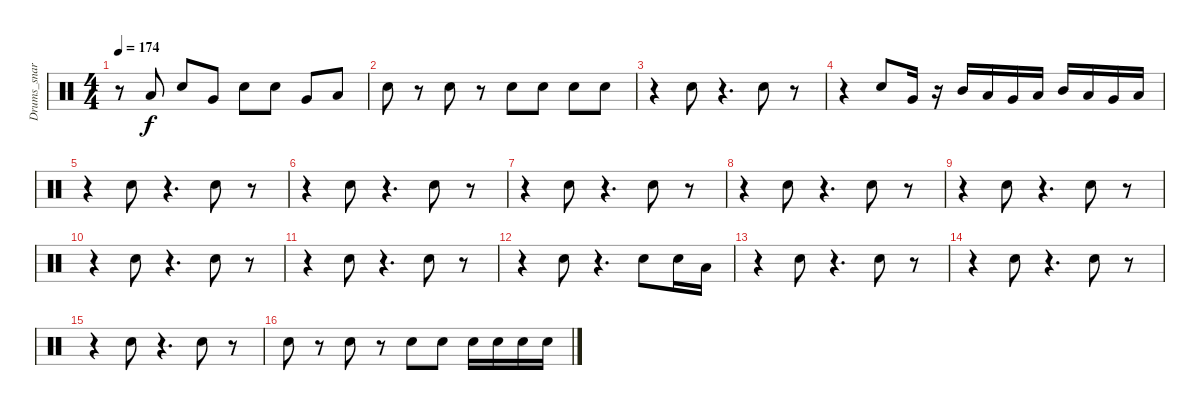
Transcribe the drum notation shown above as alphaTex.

\track ("Drums_snare&tom" "Drums_snar") {instrument percussion}
\staff {score}
\articulation defaults
\ts (4 4)
\tempo 174
\clef neutral
\ks c
r.8{dy f} "Low Tom (hit)".8 "Electric Snare (hit)".8 "Very Low Tom (hit)".8 "Electric Snare (hit)".8 "Electric Snare (hit)".8 "Very Low Tom (hit)".8 "Low Floor Tom (hit)".8 |
"Electric Snare (hit)".8 r.8 "Electric Snare (hit)".8 r.8 "Electric Snare (hit)".8 "Electric Snare (hit)".8 "Electric Snare (hit)".8 "Electric Snare (hit)".8 |
r.4 "Electric Snare (hit)".8 r.4{d} "Electric Snare (hit)".8 r.8 |
r.4 "Electric Snare (hit)".8 "Very Low Tom (hit)".16 r.16 "Mid Tom (hit)".16 "Low Tom (hit)".16 "Very Low Tom (hit)".16 "Low Floor Tom (hit)".16 "Mid Tom (hit)".16 "Low Tom (hit)".16 "Very Low Tom (hit)".16 "Low Floor Tom (hit)".16 |
r.4 "Electric Snare (hit)".8 r.4{d} "Electric Snare (hit)".8 r.8 |
r.4 "Electric Snare (hit)".8 r.4{d} "Electric Snare (hit)".8 r.8 |
r.4 "Electric Snare (hit)".8 r.4{d} "Electric Snare (hit)".8 r.8 |
r.4 "Electric Snare (hit)".8 r.4{d} "Electric Snare (hit)".8 r.8 |
r.4 "Electric Snare (hit)".8 r.4{d} "Electric Snare (hit)".8 r.8 |
r.4 "Electric Snare (hit)".8 r.4{d} "Electric Snare (hit)".8 r.8 |
r.4 "Electric Snare (hit)".8 r.4{d} "Electric Snare (hit)".8 r.8 |
r.4 "Electric Snare (hit)".8 r.4{d} "Electric Snare (hit)".8 "Electric Snare (hit)".16 "Low Tom (hit)".16 |
r.4 "Electric Snare (hit)".8 r.4{d} "Electric Snare (hit)".8 r.8 |
r.4 "Electric Snare (hit)".8 r.4{d} "Electric Snare (hit)".8 r.8 |
r.4 "Electric Snare (hit)".8 r.4{d} "Electric Snare (hit)".8 r.8 |
"Electric Snare (hit)".8 r.8 "Electric Snare (hit)".8 r.8 "Electric Snare (hit)".8 "Electric Snare (hit)".8 "Electric Snare (hit)".16 "Electric Snare (hit)".16 "Electric Snare (hit)".16 "Electric Snare (hit)".16
